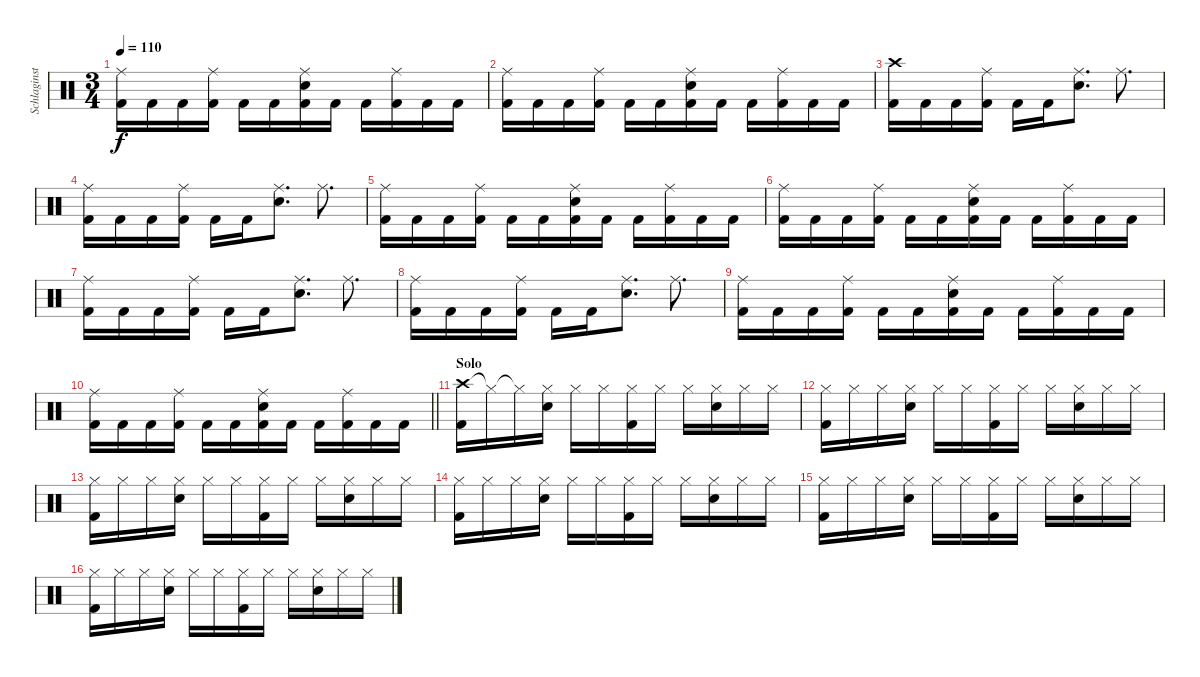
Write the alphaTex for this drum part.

\track ("Schlaginstrumente - Auswahl" "Schlaginst") {instrument percussion}
\staff {score}
\articulation defaults
\ts (3 4)
\tempo 110
\clef neutral
\ks c
("Ride (middle)" "Kick (hit) 2").16{dy f} "Kick (hit) 2".16 "Kick (hit) 2".16 ("Ride (middle)" "Kick (hit) 2").16 "Kick (hit) 2".16 "Kick (hit) 2".16 ("Ride (middle)" "Snare (hit) 2" "Kick (hit) 2").16 "Kick (hit) 2".16 "Kick (hit) 2".16 ("Ride (middle)" "Kick (hit) 2").16 "Kick (hit) 2".16 "Kick (hit) 2".16 |
("Ride (middle)" "Kick (hit) 2").16 "Kick (hit) 2".16 "Kick (hit) 2".16 ("Ride (middle)" "Kick (hit) 2").16 "Kick (hit) 2".16 "Kick (hit) 2".16 ("Ride (middle)" "Snare (hit) 2" "Kick (hit) 2").16 "Kick (hit) 2".16 "Kick (hit) 2".16 ("Ride (middle)" "Kick (hit) 2").16 "Kick (hit) 2".16 "Kick (hit) 2".16 |
("Crash high (hit)" "Kick (hit) 2").16 "Kick (hit) 2".16 "Kick (hit) 2".16 ("Ride (middle)" "Kick (hit) 2").16 "Kick (hit) 2".16 "Kick (hit) 2".16 ("Ride (middle)" "Snare (hit) 2").8{d} "Ride (middle)".8{d} |
("Ride (middle)" "Kick (hit) 2").16 "Kick (hit) 2".16 "Kick (hit) 2".16 ("Ride (middle)" "Kick (hit) 2").16 "Kick (hit) 2".16 "Kick (hit) 2".16 ("Ride (middle)" "Snare (hit) 2").8{d} "Ride (middle)".8{d} |
("Ride (middle)" "Kick (hit) 2").16 "Kick (hit) 2".16 "Kick (hit) 2".16 ("Ride (middle)" "Kick (hit) 2").16 "Kick (hit) 2".16 "Kick (hit) 2".16 ("Ride (middle)" "Snare (hit) 2" "Kick (hit) 2").16 "Kick (hit) 2".16 "Kick (hit) 2".16 ("Ride (middle)" "Kick (hit) 2").16 "Kick (hit) 2".16 "Kick (hit) 2".16 |
("Ride (middle)" "Kick (hit) 2").16 "Kick (hit) 2".16 "Kick (hit) 2".16 ("Ride (middle)" "Kick (hit) 2").16 "Kick (hit) 2".16 "Kick (hit) 2".16 ("Ride (middle)" "Snare (hit) 2" "Kick (hit) 2").16 "Kick (hit) 2".16 "Kick (hit) 2".16 ("Ride (middle)" "Kick (hit) 2").16 "Kick (hit) 2".16 "Kick (hit) 2".16 |
("Ride (middle)" "Kick (hit) 2").16 "Kick (hit) 2".16 "Kick (hit) 2".16 ("Ride (middle)" "Kick (hit) 2").16 "Kick (hit) 2".16 "Kick (hit) 2".16 ("Ride (middle)" "Snare (hit) 2").8{d} "Ride (middle)".8{d} |
("Ride (middle)" "Kick (hit) 2").16 "Kick (hit) 2".16 "Kick (hit) 2".16 ("Ride (middle)" "Kick (hit) 2").16 "Kick (hit) 2".16 "Kick (hit) 2".16 ("Ride (middle)" "Snare (hit) 2").8{d} "Ride (middle)".8{d} |
("Ride (middle)" "Kick (hit) 2").16 "Kick (hit) 2".16 "Kick (hit) 2".16 ("Ride (middle)" "Kick (hit) 2").16 "Kick (hit) 2".16 "Kick (hit) 2".16 ("Ride (middle)" "Snare (hit) 2" "Kick (hit) 2").16 "Kick (hit) 2".16 "Kick (hit) 2".16 ("Ride (middle)" "Kick (hit) 2").16 "Kick (hit) 2".16 "Kick (hit) 2".16 |
\barLineRight lightlight
("Ride (middle)" "Kick (hit) 2").16 "Kick (hit) 2".16 "Kick (hit) 2".16 ("Ride (middle)" "Kick (hit) 2").16 "Kick (hit) 2".16 "Kick (hit) 2".16 ("Ride (middle)" "Snare (hit) 2" "Kick (hit) 2").16 "Kick (hit) 2".16 "Kick (hit) 2".16 ("Ride (middle)" "Kick (hit) 2").16 "Kick (hit) 2".16 "Kick (hit) 2".16 |
\section ("" "Solo")
("Crash high (hit)" "Kick (hit) 2").16 "Hi-Hat (closed)"{t}.16 "Hi-Hat (closed)"{t}.16 ("Hi-Hat (closed)" "Snare (hit) 2").16 "Hi-Hat (closed)".16 "Hi-Hat (closed)".16 ("Hi-Hat (closed)" "Kick (hit) 2").16 "Hi-Hat (closed)".16 "Hi-Hat (closed)".16 ("Hi-Hat (closed)" "Snare (hit) 2").16 "Hi-Hat (closed)".16 "Hi-Hat (closed)".16 |
("Hi-Hat (closed)" "Kick (hit) 2").16 "Hi-Hat (closed)".16 "Hi-Hat (closed)".16 ("Hi-Hat (closed)" "Snare (hit) 2").16 "Hi-Hat (closed)".16 "Hi-Hat (closed)".16 ("Hi-Hat (closed)" "Kick (hit) 2").16 "Hi-Hat (closed)".16 "Hi-Hat (closed)".16 ("Hi-Hat (closed)" "Snare (hit) 2").16 "Hi-Hat (closed)".16 "Hi-Hat (closed)".16 |
("Hi-Hat (closed)" "Kick (hit) 2").16 "Hi-Hat (closed)".16 "Hi-Hat (closed)".16 ("Hi-Hat (closed)" "Snare (hit) 2").16 "Hi-Hat (closed)".16 "Hi-Hat (closed)".16 ("Hi-Hat (closed)" "Kick (hit) 2").16 "Hi-Hat (closed)".16 "Hi-Hat (closed)".16 ("Hi-Hat (closed)" "Snare (hit) 2").16 "Hi-Hat (closed)".16 "Hi-Hat (closed)".16 |
("Hi-Hat (closed)" "Kick (hit) 2").16 "Hi-Hat (closed)".16 "Hi-Hat (closed)".16 ("Hi-Hat (closed)" "Snare (hit) 2").16 "Hi-Hat (closed)".16 "Hi-Hat (closed)".16 ("Hi-Hat (closed)" "Kick (hit) 2").16 "Hi-Hat (closed)".16 "Hi-Hat (closed)".16 ("Hi-Hat (closed)" "Snare (hit) 2").16 "Hi-Hat (closed)".16 "Hi-Hat (closed)".16 |
("Hi-Hat (closed)" "Kick (hit) 2").16 "Hi-Hat (closed)".16 "Hi-Hat (closed)".16 ("Hi-Hat (closed)" "Snare (hit) 2").16 "Hi-Hat (closed)".16 "Hi-Hat (closed)".16 ("Hi-Hat (closed)" "Kick (hit) 2").16 "Hi-Hat (closed)".16 "Hi-Hat (closed)".16 ("Hi-Hat (closed)" "Snare (hit) 2").16 "Hi-Hat (closed)".16 "Hi-Hat (closed)".16 |
("Hi-Hat (closed)" "Kick (hit) 2").16 "Hi-Hat (closed)".16 "Hi-Hat (closed)".16 ("Hi-Hat (closed)" "Snare (hit) 2").16 "Hi-Hat (closed)".16 "Hi-Hat (closed)".16 ("Hi-Hat (closed)" "Kick (hit) 2").16 "Hi-Hat (closed)".16 "Hi-Hat (closed)".16 ("Hi-Hat (closed)" "Snare (hit) 2").16 "Hi-Hat (closed)".16 "Hi-Hat (closed)".16
